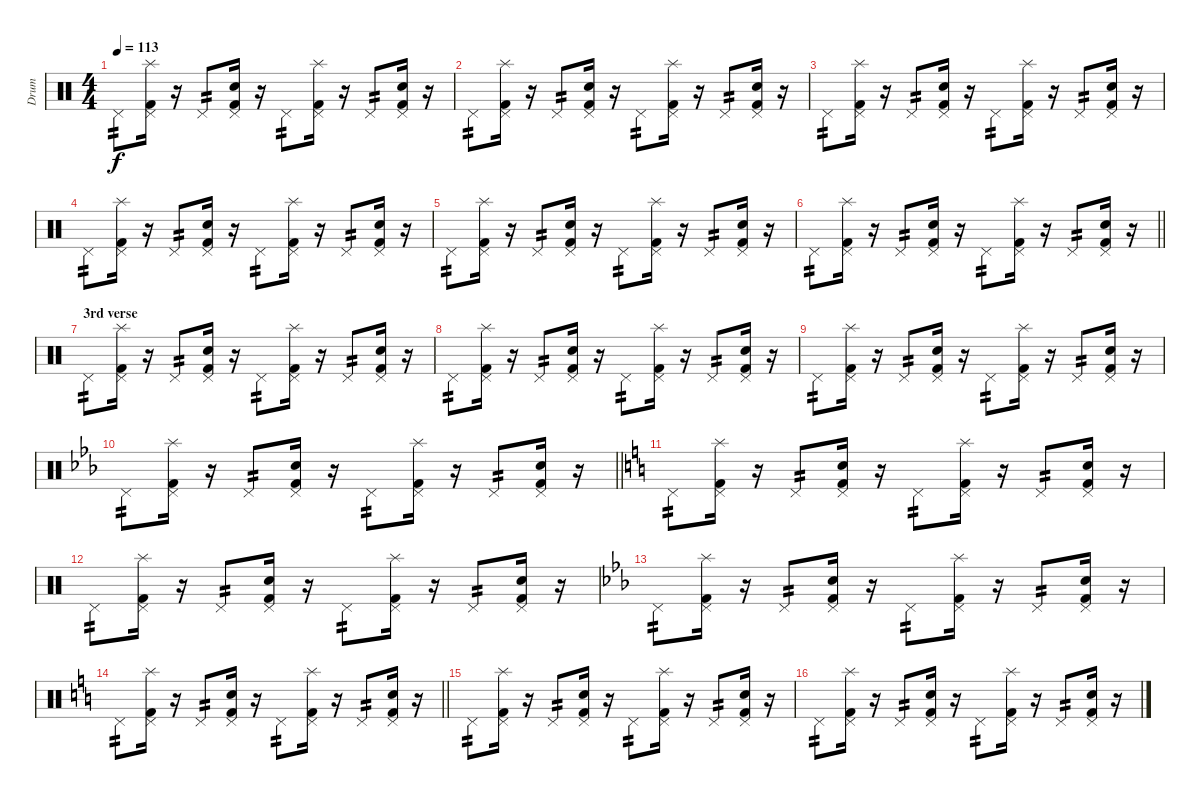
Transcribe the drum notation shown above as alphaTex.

\track ("Drum" "Drum") {instrument percussion}
\staff {score}
\articulation defaults
\ts (4 4)
\tempo 113
\clef neutral
\ks c "Pedal Hi-Hat (hit)".8{tp 2 dy f}
("Pedal Hi-Hat (hit)" "Kick (hit) 2" "Splash (hit)").16 r.16 "Pedal Hi-Hat (hit)".8{tp 2} ("Pedal Hi-Hat (hit)" "Kick (hit) 2" "Snare (hit) 2").16 r.16 "Pedal Hi-Hat (hit)".8{tp 2} ("Pedal Hi-Hat (hit)" "Kick (hit) 2" "Splash (hit)").16 r.16 "Pedal Hi-Hat (hit)".8{tp 2} ("Pedal Hi-Hat (hit)" "Kick (hit) 2" "Snare (hit) 2").16 r.16 |
"Pedal Hi-Hat (hit)".8{tp 2} ("Pedal Hi-Hat (hit)" "Kick (hit) 2" "Splash (hit)").16 r.16 "Pedal Hi-Hat (hit)".8{tp 2} ("Pedal Hi-Hat (hit)" "Kick (hit) 2" "Snare (hit) 2").16 r.16 "Pedal Hi-Hat (hit)".8{tp 2} ("Pedal Hi-Hat (hit)" "Kick (hit) 2" "Splash (hit)").16 r.16 "Pedal Hi-Hat (hit)".8{tp 2} ("Pedal Hi-Hat (hit)" "Kick (hit) 2" "Snare (hit) 2").16 r.16 |
"Pedal Hi-Hat (hit)".8{tp 2} ("Pedal Hi-Hat (hit)" "Kick (hit) 2" "Splash (hit)").16 r.16 "Pedal Hi-Hat (hit)".8{tp 2} ("Pedal Hi-Hat (hit)" "Kick (hit) 2" "Snare (hit) 2").16 r.16 "Pedal Hi-Hat (hit)".8{tp 2} ("Pedal Hi-Hat (hit)" "Kick (hit) 2" "Splash (hit)").16 r.16 "Pedal Hi-Hat (hit)".8{tp 2} ("Pedal Hi-Hat (hit)" "Kick (hit) 2" "Snare (hit) 2").16 r.16 |
"Pedal Hi-Hat (hit)".8{tp 2} ("Pedal Hi-Hat (hit)" "Kick (hit) 2" "Splash (hit)").16 r.16 "Pedal Hi-Hat (hit)".8{tp 2} ("Pedal Hi-Hat (hit)" "Kick (hit) 2" "Snare (hit) 2").16 r.16 "Pedal Hi-Hat (hit)".8{tp 2} ("Pedal Hi-Hat (hit)" "Kick (hit) 2" "Splash (hit)").16 r.16 "Pedal Hi-Hat (hit)".8{tp 2} ("Pedal Hi-Hat (hit)" "Kick (hit) 2" "Snare (hit) 2").16 r.16 |
"Pedal Hi-Hat (hit)".8{tp 2} ("Pedal Hi-Hat (hit)" "Kick (hit) 2" "Splash (hit)").16 r.16 "Pedal Hi-Hat (hit)".8{tp 2} ("Pedal Hi-Hat (hit)" "Kick (hit) 2" "Snare (hit) 2").16 r.16 "Pedal Hi-Hat (hit)".8{tp 2} ("Pedal Hi-Hat (hit)" "Kick (hit) 2" "Splash (hit)").16 r.16 "Pedal Hi-Hat (hit)".8{tp 2} ("Pedal Hi-Hat (hit)" "Kick (hit) 2" "Snare (hit) 2").16 r.16 |
\barLineRight lightlight "Pedal Hi-Hat (hit)".8{tp 2}
("Pedal Hi-Hat (hit)" "Kick (hit) 2" "Splash (hit)").16 r.16 "Pedal Hi-Hat (hit)".8{tp 2} ("Pedal Hi-Hat (hit)" "Kick (hit) 2" "Snare (hit) 2").16 r.16 "Pedal Hi-Hat (hit)".8{tp 2} ("Pedal Hi-Hat (hit)" "Kick (hit) 2" "Splash (hit)").16 r.16 "Pedal Hi-Hat (hit)".8{tp 2} ("Pedal Hi-Hat (hit)" "Kick (hit) 2" "Snare (hit) 2").16 r.16 |
\section ("" "3rd verse")
"Pedal Hi-Hat (hit)".8{tp 2} ("Pedal Hi-Hat (hit)" "Kick (hit) 2" "Splash (hit)").16 r.16 "Pedal Hi-Hat (hit)".8{tp 2} ("Pedal Hi-Hat (hit)" "Kick (hit) 2" "Snare (hit) 2").16 r.16 "Pedal Hi-Hat (hit)".8{tp 2} ("Pedal Hi-Hat (hit)" "Kick (hit) 2" "Splash (hit)").16 r.16 "Pedal Hi-Hat (hit)".8{tp 2} ("Pedal Hi-Hat (hit)" "Kick (hit) 2" "Snare (hit) 2").16 r.16 |
"Pedal Hi-Hat (hit)".8{tp 2} ("Pedal Hi-Hat (hit)" "Kick (hit) 2" "Splash (hit)").16 r.16 "Pedal Hi-Hat (hit)".8{tp 2} ("Pedal Hi-Hat (hit)" "Kick (hit) 2" "Snare (hit) 2").16 r.16 "Pedal Hi-Hat (hit)".8{tp 2} ("Pedal Hi-Hat (hit)" "Kick (hit) 2" "Splash (hit)").16 r.16 "Pedal Hi-Hat (hit)".8{tp 2} ("Pedal Hi-Hat (hit)" "Kick (hit) 2" "Snare (hit) 2").16 r.16 |
"Pedal Hi-Hat (hit)".8{tp 2} ("Pedal Hi-Hat (hit)" "Kick (hit) 2" "Splash (hit)").16 r.16 "Pedal Hi-Hat (hit)".8{tp 2} ("Pedal Hi-Hat (hit)" "Kick (hit) 2" "Snare (hit) 2").16 r.16 "Pedal Hi-Hat (hit)".8{tp 2} ("Pedal Hi-Hat (hit)" "Kick (hit) 2" "Splash (hit)").16 r.16 "Pedal Hi-Hat (hit)".8{tp 2} ("Pedal Hi-Hat (hit)" "Kick (hit) 2" "Snare (hit) 2").16 r.16 |
\barLineRight lightlight
\ks eb "Pedal Hi-Hat (hit)".8{tp 2}
("Pedal Hi-Hat (hit)" "Kick (hit) 2" "Splash (hit)").16 r.16 "Pedal Hi-Hat (hit)".8{tp 2} ("Pedal Hi-Hat (hit)" "Kick (hit) 2" "Snare (hit) 2").16 r.16 "Pedal Hi-Hat (hit)".8{tp 2} ("Pedal Hi-Hat (hit)" "Kick (hit) 2" "Splash (hit)").16 r.16 "Pedal Hi-Hat (hit)".8{tp 2} ("Pedal Hi-Hat (hit)" "Kick (hit) 2" "Snare (hit) 2").16 r.16 |
\ks c "Pedal Hi-Hat (hit)".8{tp 2}
("Pedal Hi-Hat (hit)" "Kick (hit) 2" "Splash (hit)").16 r.16 "Pedal Hi-Hat (hit)".8{tp 2} ("Pedal Hi-Hat (hit)" "Kick (hit) 2" "Snare (hit) 2").16 r.16 "Pedal Hi-Hat (hit)".8{tp 2} ("Pedal Hi-Hat (hit)" "Kick (hit) 2" "Splash (hit)").16 r.16 "Pedal Hi-Hat (hit)".8{tp 2} ("Pedal Hi-Hat (hit)" "Kick (hit) 2" "Snare (hit) 2").16 r.16 |
"Pedal Hi-Hat (hit)".8{tp 2} ("Pedal Hi-Hat (hit)" "Kick (hit) 2" "Splash (hit)").16 r.16 "Pedal Hi-Hat (hit)".8{tp 2} ("Pedal Hi-Hat (hit)" "Kick (hit) 2" "Snare (hit) 2").16 r.16 "Pedal Hi-Hat (hit)".8{tp 2} ("Pedal Hi-Hat (hit)" "Kick (hit) 2" "Splash (hit)").16 r.16 "Pedal Hi-Hat (hit)".8{tp 2} ("Pedal Hi-Hat (hit)" "Kick (hit) 2" "Snare (hit) 2").16 r.16 |
\ks eb "Pedal Hi-Hat (hit)".8{tp 2}
("Pedal Hi-Hat (hit)" "Kick (hit) 2" "Splash (hit)").16 r.16 "Pedal Hi-Hat (hit)".8{tp 2} ("Pedal Hi-Hat (hit)" "Kick (hit) 2" "Snare (hit) 2").16 r.16 "Pedal Hi-Hat (hit)".8{tp 2} ("Pedal Hi-Hat (hit)" "Kick (hit) 2" "Splash (hit)").16 r.16 "Pedal Hi-Hat (hit)".8{tp 2} ("Pedal Hi-Hat (hit)" "Kick (hit) 2" "Snare (hit) 2").16 r.16 |
\barLineRight lightlight
\ks c "Pedal Hi-Hat (hit)".8{tp 2}
("Pedal Hi-Hat (hit)" "Kick (hit) 2" "Splash (hit)").16 r.16 "Pedal Hi-Hat (hit)".8{tp 2} ("Pedal Hi-Hat (hit)" "Kick (hit) 2" "Snare (hit) 2").16 r.16 "Pedal Hi-Hat (hit)".8{tp 2} ("Pedal Hi-Hat (hit)" "Kick (hit) 2" "Splash (hit)").16 r.16 "Pedal Hi-Hat (hit)".8{tp 2} ("Pedal Hi-Hat (hit)" "Kick (hit) 2" "Snare (hit) 2").16 r.16 |
"Pedal Hi-Hat (hit)".8{tp 2} ("Pedal Hi-Hat (hit)" "Kick (hit) 2" "Splash (hit)").16 r.16 "Pedal Hi-Hat (hit)".8{tp 2} ("Pedal Hi-Hat (hit)" "Kick (hit) 2" "Snare (hit) 2").16 r.16 "Pedal Hi-Hat (hit)".8{tp 2} ("Pedal Hi-Hat (hit)" "Kick (hit) 2" "Splash (hit)").16 r.16 "Pedal Hi-Hat (hit)".8{tp 2} ("Pedal Hi-Hat (hit)" "Kick (hit) 2" "Snare (hit) 2").16 r.16 |
"Pedal Hi-Hat (hit)".8{tp 2} ("Pedal Hi-Hat (hit)" "Kick (hit) 2" "Splash (hit)").16 r.16 "Pedal Hi-Hat (hit)".8{tp 2} ("Pedal Hi-Hat (hit)" "Kick (hit) 2" "Snare (hit) 2").16 r.16 "Pedal Hi-Hat (hit)".8{tp 2} ("Pedal Hi-Hat (hit)" "Kick (hit) 2" "Splash (hit)").16 r.16 "Pedal Hi-Hat (hit)".8{tp 2} ("Pedal Hi-Hat (hit)" "Kick (hit) 2" "Snare (hit) 2").16 r.16
